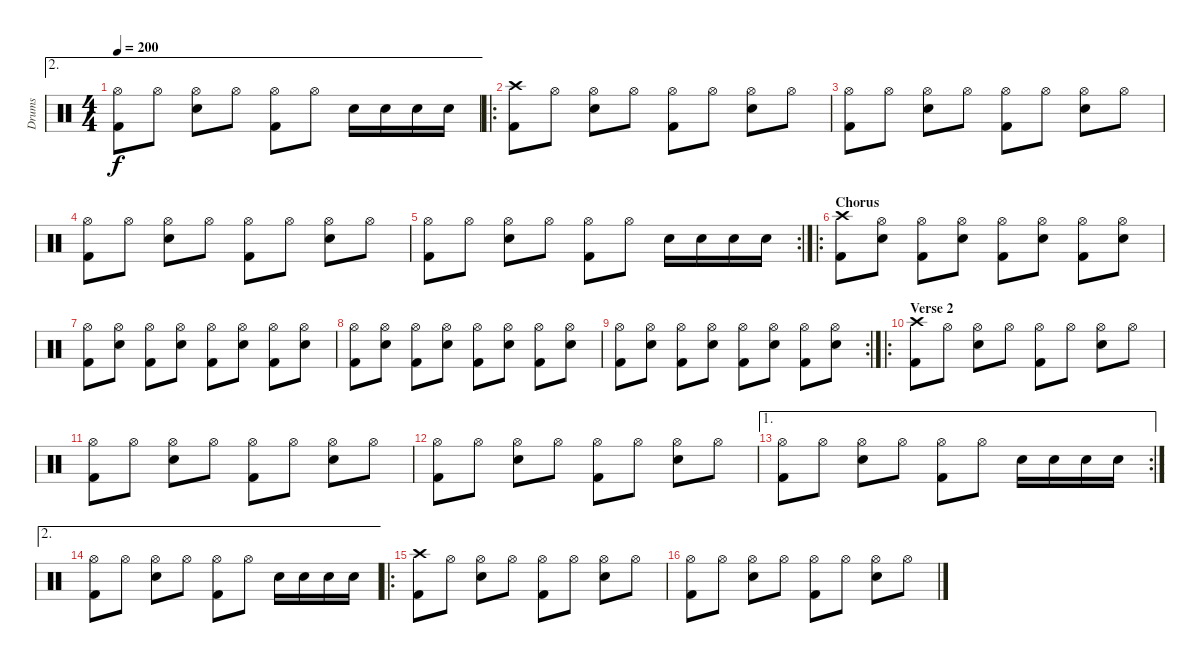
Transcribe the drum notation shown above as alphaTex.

\track ("Drums" "Drums") {instrument percussion}
\staff {score}
\articulation defaults
\ae 2
\ts (4 4)
\tempo 200
\clef neutral
\ks c
("Hi-Hat (open)" "Kick (hit) 2").8{dy f} "Hi-Hat (open)".8 ("Hi-Hat (open)" "Electric Snare (hit)").8 "Hi-Hat (open)".8 ("Hi-Hat (open)" "Kick (hit) 2").8 "Hi-Hat (open)".8 "Electric Snare (hit)".16 "Electric Snare (hit)".16 "Electric Snare (hit)".16 "Electric Snare (hit)".16 |
\ro
("Crash high (hit)" "Kick (hit) 2").8 "Hi-Hat (open)".8 ("Hi-Hat (open)" "Electric Snare (hit)").8 "Hi-Hat (open)".8 ("Hi-Hat (open)" "Kick (hit) 2").8 "Hi-Hat (open)".8 ("Hi-Hat (open)" "Electric Snare (hit)").8 "Hi-Hat (open)".8 |
("Hi-Hat (open)" "Kick (hit) 2").8 "Hi-Hat (open)".8 ("Hi-Hat (open)" "Electric Snare (hit)").8 "Hi-Hat (open)".8 ("Hi-Hat (open)" "Kick (hit) 2").8 "Hi-Hat (open)".8 ("Hi-Hat (open)" "Electric Snare (hit)").8 "Hi-Hat (open)".8 |
("Hi-Hat (open)" "Kick (hit) 2").8 "Hi-Hat (open)".8 ("Hi-Hat (open)" "Electric Snare (hit)").8 "Hi-Hat (open)".8 ("Hi-Hat (open)" "Kick (hit) 2").8 "Hi-Hat (open)".8 ("Hi-Hat (open)" "Electric Snare (hit)").8 "Hi-Hat (open)".8 |
\rc 2
("Hi-Hat (open)" "Kick (hit) 2").8 "Hi-Hat (open)".8 ("Hi-Hat (open)" "Electric Snare (hit)").8 "Hi-Hat (open)".8 ("Hi-Hat (open)" "Kick (hit) 2").8 "Hi-Hat (open)".8 "Electric Snare (hit)".16 "Electric Snare (hit)".16 "Electric Snare (hit)".16 "Electric Snare (hit)".16 |
\ro
\section ("" "Chorus")
("Crash high (hit)" "Kick (hit) 2").8 ("Hi-Hat (open)" "Electric Snare (hit)").8 ("Hi-Hat (open)" "Kick (hit) 2").8 ("Hi-Hat (open)" "Electric Snare (hit)").8 ("Hi-Hat (open)" "Kick (hit) 2").8 ("Hi-Hat (open)" "Electric Snare (hit)").8 ("Hi-Hat (open)" "Kick (hit) 2").8 ("Hi-Hat (open)" "Electric Snare (hit)").8 |
("Hi-Hat (open)" "Kick (hit) 2").8 ("Hi-Hat (open)" "Electric Snare (hit)").8 ("Hi-Hat (open)" "Kick (hit) 2").8 ("Hi-Hat (open)" "Electric Snare (hit)").8 ("Hi-Hat (open)" "Kick (hit) 2").8 ("Hi-Hat (open)" "Electric Snare (hit)").8 ("Hi-Hat (open)" "Kick (hit) 2").8 ("Hi-Hat (open)" "Electric Snare (hit)").8 |
("Hi-Hat (open)" "Kick (hit) 2").8 ("Hi-Hat (open)" "Electric Snare (hit)").8 ("Hi-Hat (open)" "Kick (hit) 2").8 ("Hi-Hat (open)" "Electric Snare (hit)").8 ("Hi-Hat (open)" "Kick (hit) 2").8 ("Hi-Hat (open)" "Electric Snare (hit)").8 ("Hi-Hat (open)" "Kick (hit) 2").8 ("Hi-Hat (open)" "Electric Snare (hit)").8 |
\rc 2
("Hi-Hat (open)" "Kick (hit) 2").8 ("Hi-Hat (open)" "Electric Snare (hit)").8 ("Hi-Hat (open)" "Kick (hit) 2").8 ("Hi-Hat (open)" "Electric Snare (hit)").8 ("Hi-Hat (open)" "Kick (hit) 2").8 ("Hi-Hat (open)" "Electric Snare (hit)").8 ("Hi-Hat (open)" "Kick (hit) 2").8 ("Hi-Hat (open)" "Electric Snare (hit)").8 |
\ro
\section ("" "Verse 2")
("Crash high (hit)" "Kick (hit) 2").8 "Hi-Hat (open)".8 ("Hi-Hat (open)" "Electric Snare (hit)").8 "Hi-Hat (open)".8 ("Hi-Hat (open)" "Kick (hit) 2").8 "Hi-Hat (open)".8 ("Hi-Hat (open)" "Electric Snare (hit)").8 "Hi-Hat (open)".8 |
("Hi-Hat (open)" "Kick (hit) 2").8 "Hi-Hat (open)".8 ("Hi-Hat (open)" "Electric Snare (hit)").8 "Hi-Hat (open)".8 ("Hi-Hat (open)" "Kick (hit) 2").8 "Hi-Hat (open)".8 ("Hi-Hat (open)" "Electric Snare (hit)").8 "Hi-Hat (open)".8 |
("Hi-Hat (open)" "Kick (hit) 2").8 "Hi-Hat (open)".8 ("Hi-Hat (open)" "Electric Snare (hit)").8 "Hi-Hat (open)".8 ("Hi-Hat (open)" "Kick (hit) 2").8 "Hi-Hat (open)".8 ("Hi-Hat (open)" "Electric Snare (hit)").8 "Hi-Hat (open)".8 |
\ae 1
\rc 2
("Hi-Hat (open)" "Kick (hit) 2").8 "Hi-Hat (open)".8 ("Hi-Hat (open)" "Electric Snare (hit)").8 "Hi-Hat (open)".8 ("Hi-Hat (open)" "Kick (hit) 2").8 "Hi-Hat (open)".8 "Electric Snare (hit)".16 "Electric Snare (hit)".16 "Electric Snare (hit)".16 "Electric Snare (hit)".16 |
\ae 2
("Hi-Hat (open)" "Kick (hit) 2").8 "Hi-Hat (open)".8 ("Hi-Hat (open)" "Electric Snare (hit)").8 "Hi-Hat (open)".8 ("Hi-Hat (open)" "Kick (hit) 2").8 "Hi-Hat (open)".8 "Electric Snare (hit)".16 "Electric Snare (hit)".16 "Electric Snare (hit)".16 "Electric Snare (hit)".16 |
\ro
("Crash high (hit)" "Kick (hit) 2").8 "Hi-Hat (open)".8 ("Hi-Hat (open)" "Electric Snare (hit)").8 "Hi-Hat (open)".8 ("Hi-Hat (open)" "Kick (hit) 2").8 "Hi-Hat (open)".8 ("Hi-Hat (open)" "Electric Snare (hit)").8 "Hi-Hat (open)".8 |
("Hi-Hat (open)" "Kick (hit) 2").8 "Hi-Hat (open)".8 ("Hi-Hat (open)" "Electric Snare (hit)").8 "Hi-Hat (open)".8 ("Hi-Hat (open)" "Kick (hit) 2").8 "Hi-Hat (open)".8 ("Hi-Hat (open)" "Electric Snare (hit)").8 "Hi-Hat (open)".8
